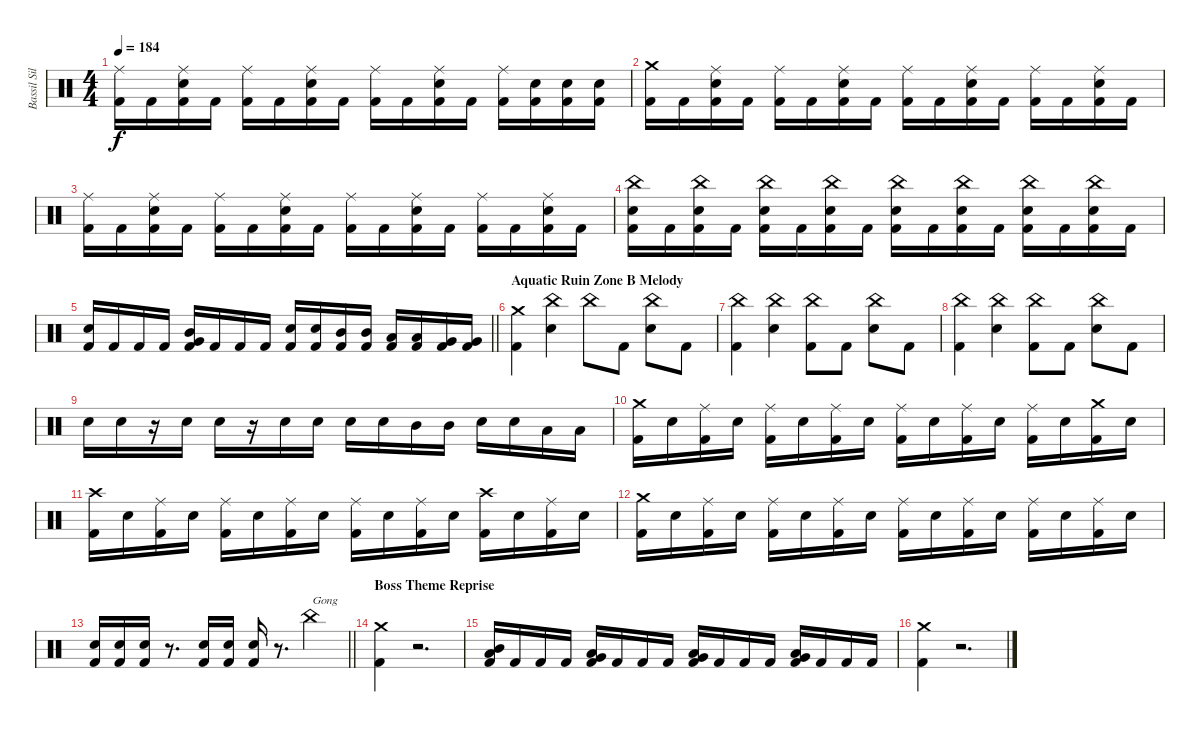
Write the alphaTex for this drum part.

\track ("Bassil Silver-Hajo" "Bassil Sil") {instrument percussion}
\staff {score}
\articulation defaults
\ts (4 4)
\tempo 184
\clef neutral
\ks c
("Ride (middle)" "Kick (hit) 2").16{dy f} "Kick (hit) 2".16 ("Ride (middle)" "Snare (hit) 2" "Kick (hit) 2").16 "Kick (hit) 2".16 ("Ride (middle)" "Kick (hit) 2").16 "Kick (hit) 2".16 ("Ride (middle)" "Snare (hit) 2" "Kick (hit) 2").16 "Kick (hit) 2".16 ("Ride (middle)" "Kick (hit) 2").16 "Kick (hit) 2".16 ("Ride (middle)" "Snare (hit) 2" "Kick (hit) 2").16 "Kick (hit) 2".16 ("Ride (middle)" "Kick (hit) 2").16 ("Snare (hit) 2" "Kick (hit) 2").16 ("Snare (hit) 2" "Kick (hit) 2").16 ("Snare (hit) 2" "Kick (hit) 2").16 |
("Crash medium (hit)" "Kick (hit) 2").16 "Kick (hit) 2".16 ("Ride (middle)" "Snare (hit) 2" "Kick (hit) 2").16 "Kick (hit) 2".16 ("Ride (middle)" "Kick (hit) 2").16 "Kick (hit) 2".16 ("Ride (middle)" "Snare (hit) 2" "Kick (hit) 2").16 "Kick (hit) 2".16 ("Ride (middle)" "Kick (hit) 2").16 "Kick (hit) 2".16 ("Ride (middle)" "Snare (hit) 2" "Kick (hit) 2").16 "Kick (hit) 2".16 ("Ride (middle)" "Kick (hit) 2").16 "Kick (hit) 2".16 ("Ride (middle)" "Snare (hit) 2" "Kick (hit) 2").16 "Kick (hit) 2".16 |
("Ride (middle)" "Kick (hit) 2").16 "Kick (hit) 2".16 ("Ride (middle)" "Snare (hit) 2" "Kick (hit) 2").16 "Kick (hit) 2".16 ("Ride (middle)" "Kick (hit) 2").16 "Kick (hit) 2".16 ("Ride (middle)" "Snare (hit) 2" "Kick (hit) 2").16 "Kick (hit) 2".16 ("Ride (middle)" "Kick (hit) 2").16 "Kick (hit) 2".16 ("Ride (middle)" "Snare (hit) 2" "Kick (hit) 2").16 "Kick (hit) 2".16 ("Ride (middle)" "Kick (hit) 2").16 "Kick (hit) 2".16 ("Ride (middle)" "Snare (hit) 2" "Kick (hit) 2").16 "Kick (hit) 2".16 |
("China (hit)" "Snare (hit) 2" "Kick (hit) 2").16 "Kick (hit) 2".16 ("China (hit)" "Snare (hit) 2" "Kick (hit) 2").16 "Kick (hit) 2".16 ("China (hit)" "Snare (hit) 2" "Kick (hit) 2").16 "Kick (hit) 2".16 ("China (hit)" "Snare (hit) 2" "Kick (hit) 2").16 "Kick (hit) 2".16 ("China (hit)" "Snare (hit) 2" "Kick (hit) 2").16 "Kick (hit) 2".16 ("China (hit)" "Snare (hit) 2" "Kick (hit) 2").16 "Kick (hit) 2".16 ("China (hit)" "Snare (hit) 2" "Kick (hit) 2").16 "Kick (hit) 2".16 ("China (hit)" "Snare (hit) 2" "Kick (hit) 2").16 "Kick (hit) 2".16 |
\barLineRight lightlight
("Snare (hit) 2" "Kick (hit) 2").16 "Kick (hit) 2".16 "Kick (hit) 2".16 "Kick (hit) 2".16 ("Mid Tom (hit)" "Very Low Tom (hit)" "Kick (hit) 2").16 "Kick (hit) 2".16 "Kick (hit) 2".16 "Kick (hit) 2".16 ("Snare (hit) 2" "Kick (hit) 2").16 ("Snare (hit) 2" "Kick (hit) 2").16 ("Mid Tom (hit)" "Kick (hit) 2").16 ("Mid Tom (hit)" "Kick (hit) 2").16 ("Low Tom (hit)" "Kick (hit) 2").16 ("Low Tom (hit)" "Kick (hit) 2").16 ("Very Low Tom (hit)" "Kick (hit) 2").16 ("Very Low Tom (hit)" "Kick (hit) 2").16 |
\section ("" "Aquatic Ruin Zone B Melody")
("Crash medium (hit)" "Kick (hit) 2").4 ("China (hit)" "Snare (hit) 2").4 "China (hit)".8 "Kick (hit) 2".8 ("China (hit)" "Snare (hit) 2").8 "Kick (hit) 2".8 |
("China (hit)" "Kick (hit) 2").4 ("China (hit)" "Snare (hit) 2").4 ("China (hit)" "Kick (hit) 2").8 "Kick (hit) 2".8 ("China (hit)" "Snare (hit) 2").8 "Kick (hit) 2".8 |
("China (hit)" "Kick (hit) 2").4 ("China (hit)" "Snare (hit) 2").4 ("China (hit)" "Kick (hit) 2").8 "Kick (hit) 2".8 ("China (hit)" "Snare (hit) 2").8 "Kick (hit) 2".8 |
"Snare (hit) 2".16 "Snare (hit) 2".16 r.16 "Snare (hit) 2".16 "Snare (hit) 2".16 r.16 "Snare (hit) 2".16 "Snare (hit) 2".16 "Snare (hit) 2".16 "Snare (hit) 2".16 "Mid Tom (hit)".16 "Mid Tom (hit)".16 "Snare (hit) 2".16 "Snare (hit) 2".16 "Low Tom (hit)".16 "Low Tom (hit)".16 |
("Crash medium (hit)" "Kick (hit) 2").16 "Snare (hit) 2".16 ("Ride (middle)" "Kick (hit) 2").16 "Snare (hit) 2".16 ("Ride (middle)" "Kick (hit) 2").16 "Snare (hit) 2".16 ("Ride (middle)" "Kick (hit) 2").16 "Snare (hit) 2".16 ("Ride (middle)" "Kick (hit) 2").16 "Snare (hit) 2".16 ("Ride (middle)" "Kick (hit) 2").16 "Snare (hit) 2".16 ("Ride (middle)" "Kick (hit) 2").16 "Snare (hit) 2".16 ("Crash medium (hit)" "Kick (hit) 2").16 "Snare (hit) 2".16 |
("Crash high (hit)" "Kick (hit) 2").16 "Snare (hit) 2".16 ("Ride (middle)" "Kick (hit) 2").16 "Snare (hit) 2".16 ("Ride (middle)" "Kick (hit) 2").16 "Snare (hit) 2".16 ("Ride (middle)" "Kick (hit) 2").16 "Snare (hit) 2".16 ("Ride (middle)" "Kick (hit) 2").16 "Snare (hit) 2".16 ("Ride (middle)" "Kick (hit) 2").16 "Snare (hit) 2".16 ("Crash high (hit)" "Kick (hit) 2").16 "Snare (hit) 2".16 ("Ride (middle)" "Kick (hit) 2").16 "Snare (hit) 2".16 |
("Crash medium (hit)" "Kick (hit) 2").16 "Snare (hit) 2".16 ("Ride (middle)" "Kick (hit) 2").16 "Snare (hit) 2".16 ("Ride (middle)" "Kick (hit) 2").16 "Snare (hit) 2".16 ("Ride (middle)" "Kick (hit) 2").16 "Snare (hit) 2".16 ("Ride (middle)" "Kick (hit) 2").16 "Snare (hit) 2".16 ("Ride (middle)" "Kick (hit) 2").16 "Snare (hit) 2".16 ("Ride (middle)" "Kick (hit) 2").16 "Snare (hit) 2".16 ("Ride (middle)" "Kick (hit) 2").16 "Snare (hit) 2".16 |
\barLineRight lightlight
("Snare (hit) 2" "Kick (hit) 2").16 ("Snare (hit) 2" "Kick (hit) 2").16 ("Snare (hit) 2" "Kick (hit) 2").16 r.8{d} ("Snare (hit) 2" "Kick (hit) 2").16 ("Snare (hit) 2" "Kick (hit) 2").16 ("Snare (hit) 2" "Kick (hit) 2").16 r.8{d} "China (hit)".4{txt "Gong"} |
\section ("" "Boss Theme Reprise")
("Crash medium (hit)" "Kick (hit) 2").4 r.2{d} |
("Mid Tom (hit)" "Low Tom (hit)" "Kick (hit) 2").16 "Kick (hit) 2".16 "Kick (hit) 2".16 "Kick (hit) 2".16 ("Very Low Tom (hit)" "Low Tom (hit)" "Kick (hit) 2").16 "Kick (hit) 2".16 "Kick (hit) 2".16 "Kick (hit) 2".16 ("Low Floor Tom (hit)" "Very Low Tom (hit)" "Kick (hit) 2").16 "Kick (hit) 2".16 "Kick (hit) 2".16 "Kick (hit) 2".16 ("Very Low Tom (hit)" "Low Tom (hit)" "Kick (hit) 2").16 "Kick (hit) 2".16 "Kick (hit) 2".16 "Kick (hit) 2".16 |
("Crash medium (hit)" "Kick (hit) 2").4 r.2{d}
